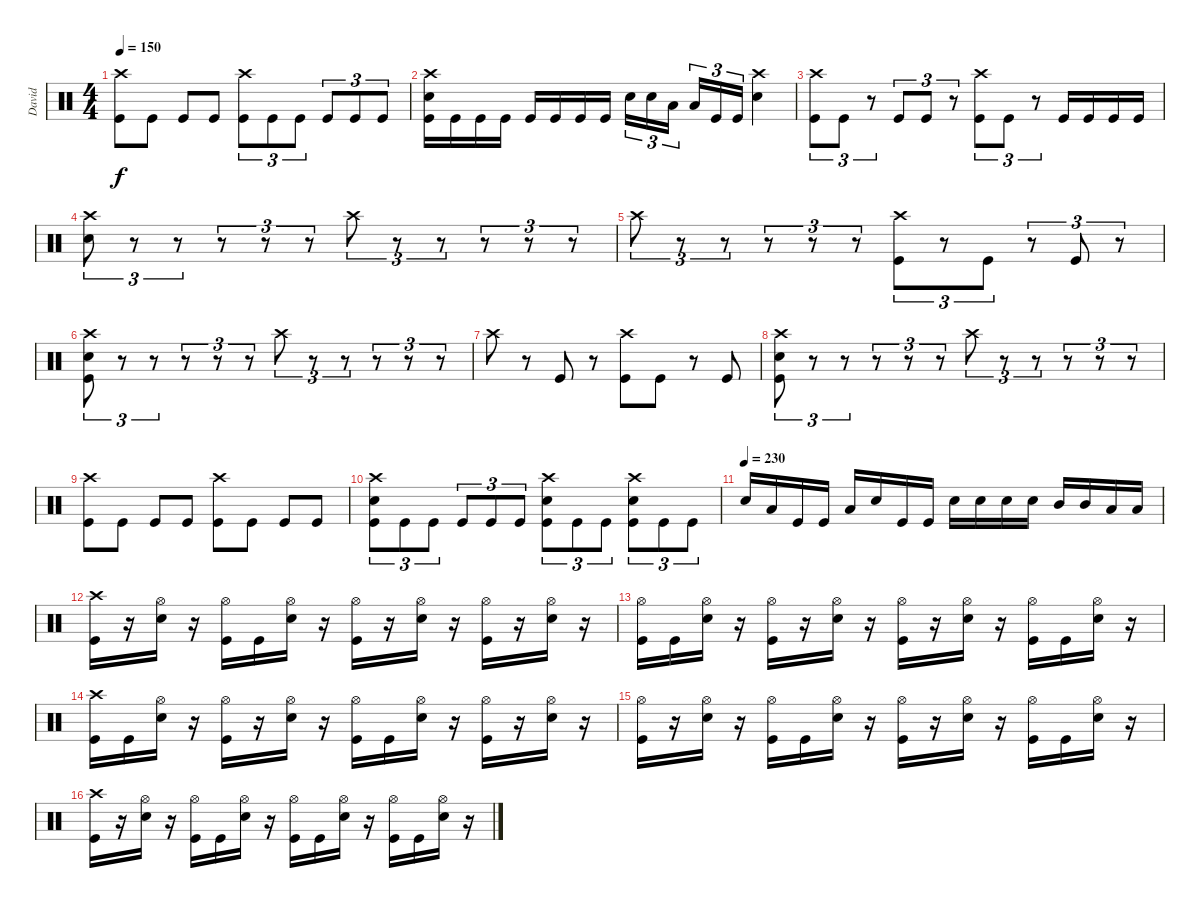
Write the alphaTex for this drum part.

\track ("David" "David") {instrument percussion}
\staff {score}
\articulation defaults
\ts (4 4)
\tempo 150
\clef neutral
\ks c
("Crash high (hit)" "Kick (hit)").8{dy f} "Kick (hit)".8 "Kick (hit)".8 "Kick (hit)".8 ("Crash high (hit)" "Kick (hit)").8{tu (3 2)} "Kick (hit)".8{tu (3 2)} "Kick (hit)".8{tu (3 2)} "Kick (hit)".8{tu (3 2)} "Kick (hit)".8{tu (3 2)} "Kick (hit)".8{tu (3 2)} |
("Crash high (hit)" "Electric Snare (hit)" "Kick (hit)").16 "Kick (hit)".16 "Kick (hit)".16 "Kick (hit)".16 "Kick (hit)".16 "Kick (hit)".16 "Kick (hit)".16 "Kick (hit)".16 "Electric Snare (hit)".16{tu (3 2)} "Electric Snare (hit)".16{tu (3 2)} "Low Tom (hit)".16{tu (3 2) beam splitsecondary} "Low Tom (hit)".16{tu (3 2)} "Kick (hit)".16{tu (3 2)} "Kick (hit)".16{tu (3 2)} ("Crash high (hit)" "Electric Snare (hit)").4 |
("Crash high (hit)" "Kick (hit)").8{tu (3 2)} "Kick (hit)".8{tu (3 2)} r.8{tu (3 2)} "Kick (hit)".8{tu (3 2)} "Kick (hit)".8{tu (3 2)} r.8{tu (3 2)} ("Crash high (hit)" "Kick (hit)").8{tu (3 2)} "Kick (hit)".8{tu (3 2)} r.8{tu (3 2)} "Kick (hit)".16 "Kick (hit)".16 "Kick (hit)".16 "Kick (hit)".16 |
("Crash high (hit)" "Electric Snare (hit)").8{tu (3 2)} r.8{tu (3 2)} r.8{tu (3 2)} r.8{tu (3 2)} r.8{tu (3 2)} r.8{tu (3 2)} "Crash high (hit)".8{tu (3 2)} r.8{tu (3 2)} r.8{tu (3 2)} r.8{tu (3 2)} r.8{tu (3 2)} r.8{tu (3 2)} |
"Crash high (hit)".8{tu (3 2)} r.8{tu (3 2)} r.8{tu (3 2)} r.8{tu (3 2)} r.8{tu (3 2)} r.8{tu (3 2)} ("Crash high (hit)" "Kick (hit)").8{tu (3 2)} r.8{tu (3 2)} "Kick (hit)".8{tu (3 2)} r.8{tu (3 2)} "Kick (hit)".8{tu (3 2)} r.8{tu (3 2)} |
("Crash high (hit)" "Electric Snare (hit)" "Kick (hit)").8{tu (3 2)} r.8{tu (3 2)} r.8{tu (3 2)} r.8{tu (3 2)} r.8{tu (3 2)} r.8{tu (3 2)} "Crash high (hit)".8{tu (3 2)} r.8{tu (3 2)} r.8{tu (3 2)} r.8{tu (3 2)} r.8{tu (3 2)} r.8{tu (3 2)} |
"Crash high (hit)".8 r.8 "Kick (hit)".8 r.8 ("Crash high (hit)" "Kick (hit)").8 "Kick (hit)".8 r.8 "Kick (hit)".8 |
("Crash high (hit)" "Electric Snare (hit)" "Kick (hit)").8{tu (3 2)} r.8{tu (3 2)} r.8{tu (3 2)} r.8{tu (3 2)} r.8{tu (3 2)} r.8{tu (3 2)} "Crash high (hit)".8{tu (3 2)} r.8{tu (3 2)} r.8{tu (3 2)} r.8{tu (3 2)} r.8{tu (3 2)} r.8{tu (3 2)} |
("Crash high (hit)" "Kick (hit)").8 "Kick (hit)".8 "Kick (hit)".8 "Kick (hit)".8 ("Crash high (hit)" "Kick (hit)").8 "Kick (hit)".8 "Kick (hit)".8 "Kick (hit)".8 |
("Crash high (hit)" "Electric Snare (hit)" "Kick (hit)").8{tu (3 2)} "Kick (hit)".8{tu (3 2)} "Kick (hit)".8{tu (3 2)} "Kick (hit)".8{tu (3 2)} "Kick (hit)".8{tu (3 2)} "Kick (hit)".8{tu (3 2)} ("Crash high (hit)" "Electric Snare (hit)" "Kick (hit)").8{tu (3 2)} "Kick (hit)".8{tu (3 2)} "Kick (hit)".8{tu (3 2)} ("Crash high (hit)" "Electric Snare (hit)" "Kick (hit)").8{tu (3 2)} "Kick (hit)".8{tu (3 2)} "Kick (hit)".8{tu (3 2)} |
\tempo (230)
"Electric Snare (hit)".16 "Low Tom (hit)".16 "Kick (hit)".16 "Kick (hit)".16 "Low Tom (hit)".16 "Electric Snare (hit)".16 "Kick (hit)".16 "Kick (hit)".16 "Electric Snare (hit)".16 "Electric Snare (hit)".16 "Electric Snare (hit)".16 "Electric Snare (hit)".16 "Mid Tom (hit)".16 "Mid Tom (hit)".16 "Low Tom (hit)".16 "Low Tom (hit)".16 |
("Crash high (hit)" "Kick (hit)").16 r.16 ("Hi-Hat (open)" "Electric Snare (hit)").16 r.16 ("Hi-Hat (open)" "Kick (hit)").16 "Kick (hit)".16 ("Hi-Hat (open)" "Electric Snare (hit)").16 r.16 ("Hi-Hat (open)" "Kick (hit)").16 r.16 ("Hi-Hat (open)" "Electric Snare (hit)").16 r.16 ("Hi-Hat (open)" "Kick (hit)").16 r.16 ("Hi-Hat (open)" "Electric Snare (hit)").16 r.16 |
("Hi-Hat (open)" "Kick (hit)").16 "Kick (hit)".16 ("Hi-Hat (open)" "Electric Snare (hit)").16 r.16 ("Hi-Hat (open)" "Kick (hit)").16 r.16 ("Hi-Hat (open)" "Electric Snare (hit)").16 r.16 ("Hi-Hat (open)" "Kick (hit)").16 r.16 ("Hi-Hat (open)" "Electric Snare (hit)").16 r.16 ("Hi-Hat (open)" "Kick (hit)").16 "Kick (hit)".16 ("Hi-Hat (open)" "Electric Snare (hit)").16 r.16 |
("Crash high (hit)" "Kick (hit)").16 "Kick (hit)".16 ("Hi-Hat (open)" "Electric Snare (hit)").16 r.16 ("Hi-Hat (open)" "Kick (hit)").16 r.16 ("Hi-Hat (open)" "Electric Snare (hit)").16 r.16 ("Hi-Hat (open)" "Kick (hit)").16 "Kick (hit)".16 ("Hi-Hat (open)" "Electric Snare (hit)").16 r.16 ("Hi-Hat (open)" "Kick (hit)").16 r.16 ("Hi-Hat (open)" "Electric Snare (hit)").16 r.16 |
("Hi-Hat (open)" "Kick (hit)").16 r.16 ("Hi-Hat (open)" "Electric Snare (hit)").16 r.16 ("Hi-Hat (open)" "Kick (hit)").16 "Kick (hit)".16 ("Hi-Hat (open)" "Electric Snare (hit)").16 r.16 ("Hi-Hat (open)" "Kick (hit)").16 r.16 ("Hi-Hat (open)" "Electric Snare (hit)").16 r.16 ("Hi-Hat (open)" "Kick (hit)").16 "Kick (hit)".16 ("Hi-Hat (open)" "Electric Snare (hit)").16 r.16 |
("Crash high (hit)" "Kick (hit)").16 r.16 ("Hi-Hat (open)" "Electric Snare (hit)").16 r.16 ("Hi-Hat (open)" "Kick (hit)").16 "Kick (hit)".16 ("Hi-Hat (open)" "Electric Snare (hit)").16 r.16 ("Hi-Hat (open)" "Kick (hit)").16 "Kick (hit)".16 ("Hi-Hat (open)" "Electric Snare (hit)").16 r.16 ("Hi-Hat (open)" "Kick (hit)").16 "Kick (hit)".16 ("Hi-Hat (open)" "Electric Snare (hit)").16 r.16
